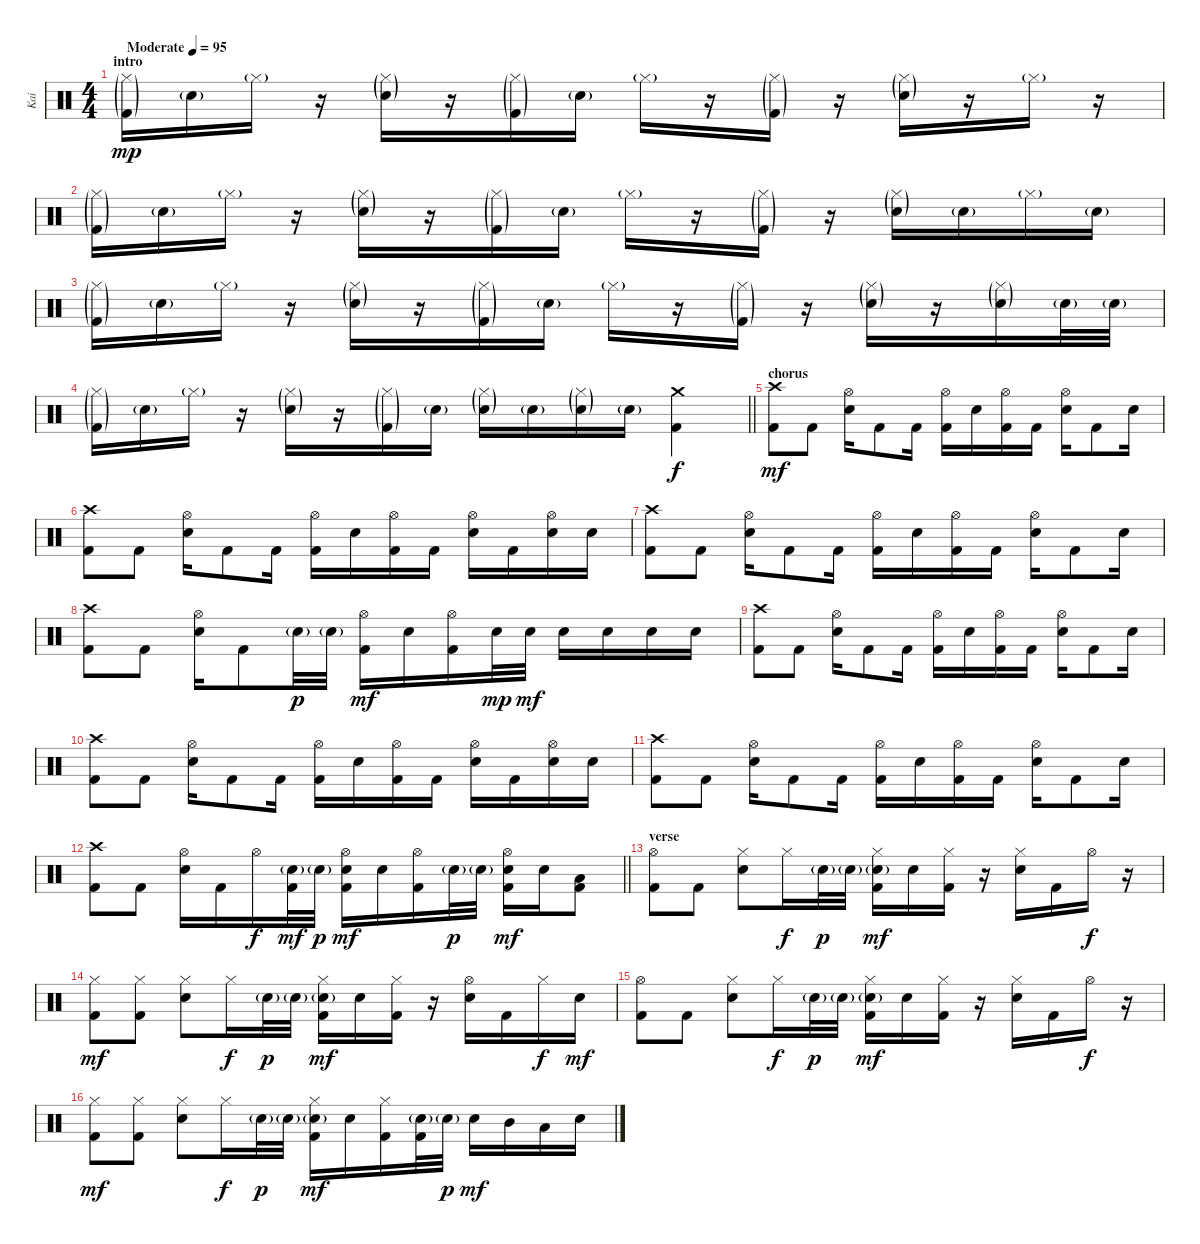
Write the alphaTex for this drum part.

\track ("Kai" "Kai") {instrument percussion}
\staff {score}
\articulation defaults
\ts (4 4)
\section ("" "intro")
\tempo (95 "Moderate")
\clef neutral
\ks c
("Hi-Hat (closed)"{g} "Kick (hit) 2"{g}).16{dy mp} "Electric Snare (hit)"{g}.16 "Hi-Hat (closed)"{g}.16 r.16 ("Hi-Hat (closed)"{g} "Electric Snare (hit)"{g}).16 r.16 ("Hi-Hat (closed)"{g} "Kick (hit) 2"{g}).16 "Electric Snare (hit)"{g}.16 "Hi-Hat (closed)"{g}.16 r.16 ("Hi-Hat (closed)"{g} "Kick (hit) 2"{g}).16 r.16 ("Hi-Hat (closed)"{g} "Electric Snare (hit)"{g}).16 r.16 "Hi-Hat (closed)"{g}.16 r.16 |
("Hi-Hat (closed)"{g} "Kick (hit) 2"{g}).16 "Electric Snare (hit)"{g}.16 "Hi-Hat (closed)"{g}.16 r.16 ("Hi-Hat (closed)"{g} "Electric Snare (hit)"{g}).16 r.16 ("Hi-Hat (closed)"{g} "Kick (hit) 2"{g}).16 "Electric Snare (hit)"{g}.16 "Hi-Hat (closed)"{g}.16 r.16 ("Hi-Hat (closed)"{g} "Kick (hit) 2"{g}).16 r.16 ("Hi-Hat (closed)"{g} "Electric Snare (hit)"{g}).16 "Electric Snare (hit)"{g}.16 "Hi-Hat (closed)"{g}.16 "Electric Snare (hit)"{g}.16 |
("Hi-Hat (closed)"{g} "Kick (hit) 2"{g}).16 "Electric Snare (hit)"{g}.16 "Hi-Hat (closed)"{g}.16 r.16 ("Hi-Hat (closed)"{g} "Electric Snare (hit)"{g}).16 r.16 ("Hi-Hat (closed)"{g} "Kick (hit) 2"{g}).16 "Electric Snare (hit)"{g}.16 "Hi-Hat (closed)"{g}.16 r.16 ("Hi-Hat (closed)"{g} "Kick (hit) 2"{g}).16 r.16 ("Hi-Hat (closed)"{g} "Electric Snare (hit)"{g}).16 r.16 ("Hi-Hat (closed)"{g} "Electric Snare (hit)"{g}).16 "Electric Snare (hit)"{g}.32 "Electric Snare (hit)"{g}.32 |
\barLineRight lightlight
("Hi-Hat (closed)"{g} "Kick (hit) 2"{g}).16 "Electric Snare (hit)"{g}.16 "Hi-Hat (closed)"{g}.16 r.16 ("Hi-Hat (closed)"{g} "Electric Snare (hit)"{g}).16 r.16 ("Hi-Hat (closed)"{g} "Kick (hit) 2"{g}).16 "Electric Snare (hit)"{g}.16 ("Hi-Hat (closed)"{g} "Snare (hit) 2"{g}).16 "Snare (hit) 2"{g}.16 ("Hi-Hat (closed)"{g} "Snare (hit) 2"{g}).16 "Snare (hit) 2"{g}.16 ("Crash medium (hit)" "Kick (hit) 2").4{dy f} |
\section ("" "chorus")
("Crash high (hit)" "Kick (hit) 2").8{dy mf} "Kick (hit) 2".8 ("Hi-Hat (open)" "Electric Snare (hit)").16 "Kick (hit) 2".8 "Kick (hit) 2".16 ("Hi-Hat (open)" "Kick (hit) 2").16 "Electric Snare (hit)".16 ("Hi-Hat (open)" "Kick (hit) 2").16 "Kick (hit) 2".16 ("Hi-Hat (open)" "Electric Snare (hit)").16 "Kick (hit) 2".8 "Electric Snare (hit)".16 |
("Crash high (hit)" "Kick (hit) 2").8 "Kick (hit) 2".8 ("Hi-Hat (open)" "Electric Snare (hit)").16 "Kick (hit) 2".8 "Kick (hit) 2".16 ("Hi-Hat (open)" "Kick (hit) 2").16 "Electric Snare (hit)".16 ("Hi-Hat (open)" "Kick (hit) 2").16 "Kick (hit) 2".16 ("Hi-Hat (open)" "Electric Snare (hit)").16 "Kick (hit) 2".16 ("Hi-Hat (open)" "Electric Snare (hit)").16 "Electric Snare (hit)".16 |
("Crash high (hit)" "Kick (hit) 2").8 "Kick (hit) 2".8 ("Hi-Hat (open)" "Electric Snare (hit)").16 "Kick (hit) 2".8 "Kick (hit) 2".16 ("Hi-Hat (open)" "Kick (hit) 2").16 "Electric Snare (hit)".16 ("Hi-Hat (open)" "Kick (hit) 2").16 "Kick (hit) 2".16 ("Hi-Hat (open)" "Electric Snare (hit)").16 "Kick (hit) 2".8 "Electric Snare (hit)".16 |
("Crash high (hit)" "Kick (hit) 2").8 "Kick (hit) 2".8 ("Hi-Hat (open)" "Electric Snare (hit)").16 "Kick (hit) 2".8 "Electric Snare (hit)"{g}.32{dy p} "Electric Snare (hit)"{g}.32 ("Hi-Hat (open)" "Kick (hit) 2").16{dy mf} "Electric Snare (hit)".16 ("Hi-Hat (open)" "Kick (hit) 2").16 "Electric Snare (hit)".32{dy mp} "Electric Snare (hit)".32{dy mf} "Electric Snare (hit)".16 "Electric Snare (hit)".16 "Electric Snare (hit)".16 "Electric Snare (hit)".16 |
("Crash high (hit)" "Kick (hit) 2").8 "Kick (hit) 2".8 ("Hi-Hat (open)" "Electric Snare (hit)").16 "Kick (hit) 2".8 "Kick (hit) 2".16 ("Hi-Hat (open)" "Kick (hit) 2").16 "Electric Snare (hit)".16 ("Hi-Hat (open)" "Kick (hit) 2").16 "Kick (hit) 2".16 ("Hi-Hat (open)" "Electric Snare (hit)").16 "Kick (hit) 2".8 "Electric Snare (hit)".16 |
("Crash high (hit)" "Kick (hit) 2").8 "Kick (hit) 2".8 ("Hi-Hat (open)" "Electric Snare (hit)").16 "Kick (hit) 2".8 "Kick (hit) 2".16 ("Hi-Hat (open)" "Kick (hit) 2").16 "Electric Snare (hit)".16 ("Hi-Hat (open)" "Kick (hit) 2").16 "Kick (hit) 2".16 ("Hi-Hat (open)" "Electric Snare (hit)").16 "Kick (hit) 2".16 ("Hi-Hat (open)" "Electric Snare (hit)").16 "Electric Snare (hit)".16 |
("Crash high (hit)" "Kick (hit) 2").8 "Kick (hit) 2".8 ("Hi-Hat (open)" "Electric Snare (hit)").16 "Kick (hit) 2".8 "Kick (hit) 2".16 ("Hi-Hat (open)" "Kick (hit) 2").16 "Electric Snare (hit)".16 ("Hi-Hat (open)" "Kick (hit) 2").16 "Kick (hit) 2".16 ("Hi-Hat (open)" "Electric Snare (hit)").16 "Kick (hit) 2".8 "Electric Snare (hit)".16 |
\barLineRight lightlight
("Crash high (hit)" "Kick (hit) 2").8 "Kick (hit) 2".8 ("Hi-Hat (open)" "Electric Snare (hit)").16 "Kick (hit) 2".16 "Hi-Hat (open)".16{dy f} ("Electric Snare (hit)"{g} "Kick (hit) 2").32{dy mf} "Electric Snare (hit)"{g}.32{dy p} ("Hi-Hat (open)" "Electric Snare (hit)" "Kick (hit) 2").16{dy mf} "Electric Snare (hit)".16 ("Hi-Hat (open)" "Kick (hit) 2").16 "Electric Snare (hit)"{g}.32{dy p} "Electric Snare (hit)"{g}.32 ("Hi-Hat (open)" "Electric Snare (hit)" "Kick (hit) 2").16{dy mf} "Electric Snare (hit)".16 ("Low Tom (hit)" "Kick (hit) 2").8 |
\section ("" "verse")
("Hi-Hat (open)" "Kick (hit) 2").8 "Kick (hit) 2".8 ("Hi-Hat (closed)" "Electric Snare (hit)").8 "Hi-Hat (closed)".16{dy f} "Electric Snare (hit)"{g}.32{dy p} "Electric Snare (hit)"{g}.32 ("Hi-Hat (closed)" "Electric Snare (hit)"{g} "Kick (hit) 2").16{dy mf} "Electric Snare (hit)".16 ("Hi-Hat (closed)" "Kick (hit) 2").16 r.16 ("Hi-Hat (closed)" "Electric Snare (hit)").16 "Kick (hit) 2".16 "Hi-Hat (open)".16{dy f} r.16 |
("Hi-Hat (closed)" "Kick (hit) 2").8{dy mf} ("Hi-Hat (closed)" "Kick (hit) 2").8 ("Hi-Hat (closed)" "Electric Snare (hit)").8 "Hi-Hat (closed)".16{dy f} "Electric Snare (hit)"{g}.32{dy p} "Electric Snare (hit)"{g}.32 ("Hi-Hat (closed)" "Electric Snare (hit)"{g} "Kick (hit) 2").16{dy mf} "Electric Snare (hit)".16 ("Hi-Hat (closed)" "Kick (hit) 2").16 r.16 ("Hi-Hat (open)" "Electric Snare (hit)").16 "Kick (hit) 2".16 "Hi-Hat (closed)".16{dy f} "Electric Snare (hit)".16{dy mf} |
("Hi-Hat (open)" "Kick (hit) 2").8 "Kick (hit) 2".8 ("Hi-Hat (closed)" "Electric Snare (hit)").8 "Hi-Hat (closed)".16{dy f} "Electric Snare (hit)"{g}.32{dy p} "Electric Snare (hit)"{g}.32 ("Hi-Hat (closed)" "Electric Snare (hit)"{g} "Kick (hit) 2").16{dy mf} "Electric Snare (hit)".16 ("Hi-Hat (closed)" "Kick (hit) 2").16 r.16 ("Hi-Hat (closed)" "Electric Snare (hit)").16 "Kick (hit) 2".16 "Hi-Hat (open)".16{dy f} r.16 |
("Hi-Hat (closed)" "Kick (hit) 2").8{dy mf} ("Hi-Hat (closed)" "Kick (hit) 2").8 ("Hi-Hat (closed)" "Electric Snare (hit)").8 "Hi-Hat (closed)".16{dy f} "Electric Snare (hit)"{g}.32{dy p} "Electric Snare (hit)"{g}.32 ("Hi-Hat (closed)" "Electric Snare (hit)"{g} "Kick (hit) 2").16{dy mf} "Electric Snare (hit)".16 ("Hi-Hat (closed)" "Kick (hit) 2").16 ("Electric Snare (hit)"{g} "Kick (hit) 2").32 "Electric Snare (hit)"{g}.32{dy p} "Electric Snare (hit)".16{dy mf} "Mid Tom (hit)".16 "Low Tom (hit)".16 "Electric Snare (hit)".16
